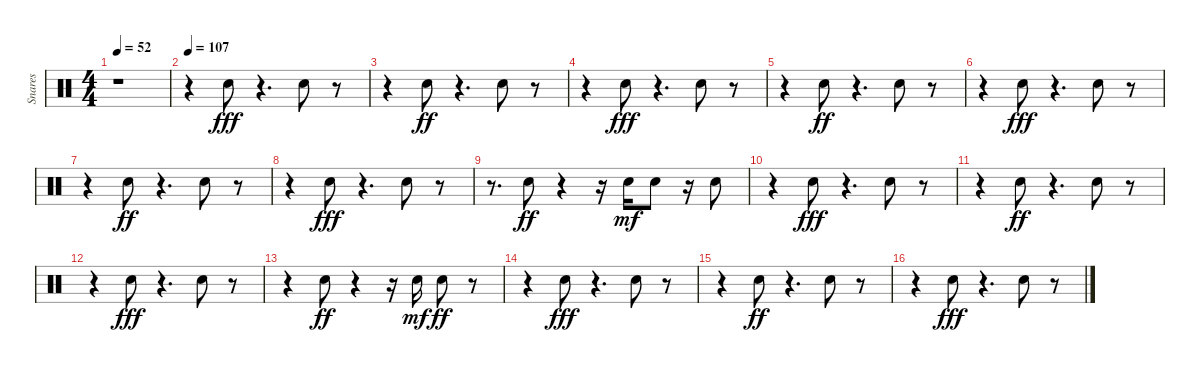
\track ("Snares" "Snares") {instrument percussion}
\staff {score}
\articulation defaults
\ts (4 4)
\tempo 52
\clef neutral
\ks c
r.1{dy fff} |
\tempo 107
r.4 "Snare (hit) 2".8 r.4{d} "Snare (hit) 2".8 r.8 |
r.4 "Snare (hit) 2".8{dy ff} r.4{d} "Snare (hit) 2".8 r.8 |
r.4 "Snare (hit) 2".8{dy fff} r.4{d} "Snare (hit) 2".8 r.8 |
r.4 "Snare (hit) 2".8{dy ff} r.4{d} "Snare (hit) 2".8 r.8 |
r.4 "Snare (hit) 2".8{dy fff} r.4{d} "Snare (hit) 2".8 r.8 |
r.4 "Snare (hit) 2".8{dy ff} r.4{d} "Snare (hit) 2".8 r.8 |
r.4 "Snare (hit) 2".8{dy fff} r.4{d} "Snare (hit) 2".8 r.8 |
r.8{d} "Snare (hit) 2".8{dy ff} r.4 r.16 "Snare (hit) 2".16{dy mf} "Snare (hit) 2".8 r.16 "Snare (hit) 2".8 |
r.4 "Snare (hit) 2".8{dy fff} r.4{d} "Snare (hit) 2".8 r.8 |
r.4 "Snare (hit) 2".8{dy ff} r.4{d} "Snare (hit) 2".8 r.8 |
r.4 "Snare (hit) 2".8{dy fff} r.4{d} "Snare (hit) 2".8 r.8 |
r.4 "Snare (hit) 2".8{dy ff} r.4 r.16 "Snare (hit) 2".16{dy mf} "Snare (hit) 2".8{dy ff} r.8 |
r.4 "Snare (hit) 2".8{dy fff} r.4{d} "Snare (hit) 2".8 r.8 |
r.4 "Snare (hit) 2".8{dy ff} r.4{d} "Snare (hit) 2".8 r.8 |
r.4 "Snare (hit) 2".8{dy fff} r.4{d} "Snare (hit) 2".8 r.8
